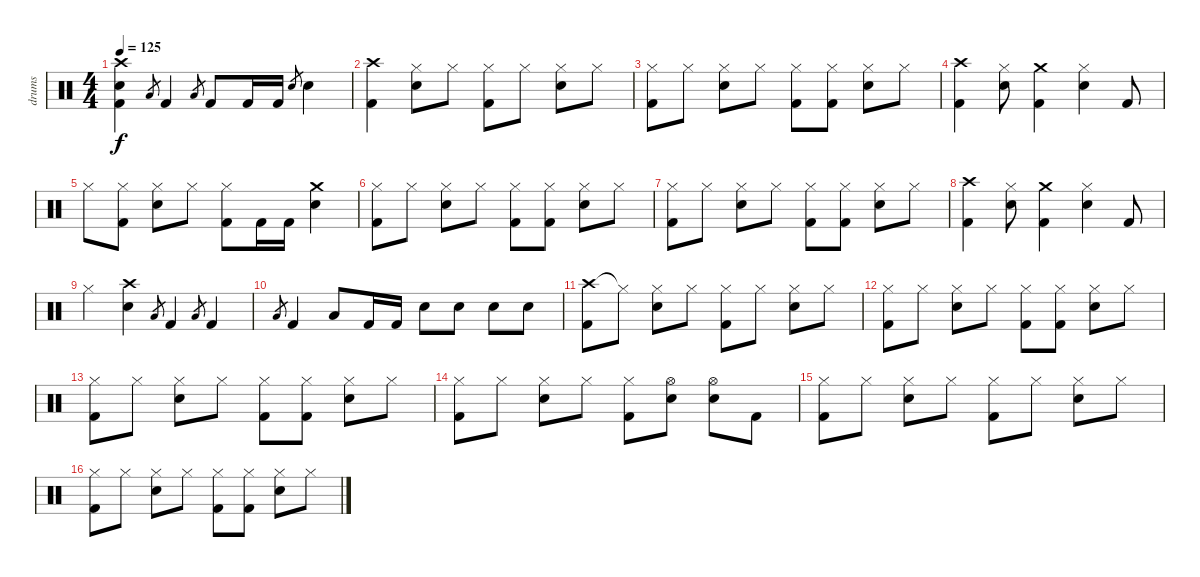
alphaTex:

\track ("drums" "drums") {instrument percussion}
\staff {score}
\articulation defaults
\ts (4 4)
\tempo 125
\clef neutral
\ks c
("Crash high (hit)" "Electric Snare (hit)" "Kick (hit) 2").4{dy f} "Low Floor Tom (hit)".8{gr} "Kick (hit) 2".4 "Low Floor Tom (hit)".8{gr} "Kick (hit) 2".8 "Kick (hit) 2".16 "Kick (hit) 2".16 "Electric Snare (hit)".8{gr} "Electric Snare (hit)".4 |
("Crash high (hit)" "Kick (hit) 2").4 ("Hi-Hat (closed)" "Electric Snare (hit)").8 "Hi-Hat (closed)".8 ("Hi-Hat (closed)" "Kick (hit) 2").8 "Hi-Hat (closed)".8 ("Hi-Hat (closed)" "Electric Snare (hit)").8 "Hi-Hat (closed)".8 |
("Hi-Hat (closed)" "Kick (hit) 2").8 "Hi-Hat (closed)".8 ("Hi-Hat (closed)" "Electric Snare (hit)").8 "Hi-Hat (closed)".8 ("Hi-Hat (closed)" "Kick (hit) 2").8 ("Hi-Hat (closed)" "Kick (hit) 2").8 ("Hi-Hat (closed)" "Electric Snare (hit)").8 "Hi-Hat (closed)".8 |
("Crash high (hit)" "Kick (hit) 2").4 ("Hi-Hat (closed)" "Electric Snare (hit)").8 ("Crash medium (hit)" "Kick (hit) 2").4 ("Hi-Hat (closed)" "Electric Snare (hit)").4 "Kick (hit) 2".8 |
"Hi-Hat (closed)".8 ("Hi-Hat (closed)" "Kick (hit) 2").8 ("Hi-Hat (closed)" "Electric Snare (hit)").8 "Hi-Hat (closed)".8 ("Hi-Hat (closed)" "Kick (hit) 2").8 "Kick (hit) 2".16 "Kick (hit) 2".16 ("Crash medium (hit)" "Electric Snare (hit)").4 |
("Hi-Hat (closed)" "Kick (hit) 2").8 "Hi-Hat (closed)".8 ("Hi-Hat (closed)" "Electric Snare (hit)").8 "Hi-Hat (closed)".8 ("Hi-Hat (closed)" "Kick (hit) 2").8 ("Hi-Hat (closed)" "Kick (hit) 2").8 ("Hi-Hat (closed)" "Electric Snare (hit)").8 "Hi-Hat (closed)".8 |
("Hi-Hat (closed)" "Kick (hit) 2").8 "Hi-Hat (closed)".8 ("Hi-Hat (closed)" "Electric Snare (hit)").8 "Hi-Hat (closed)".8 ("Hi-Hat (closed)" "Kick (hit) 2").8 ("Hi-Hat (closed)" "Kick (hit) 2").8 ("Hi-Hat (closed)" "Electric Snare (hit)").8 "Hi-Hat (closed)".8 |
("Crash high (hit)" "Kick (hit) 2").4 ("Hi-Hat (closed)" "Electric Snare (hit)").8 ("Crash medium (hit)" "Kick (hit) 2").4 ("Hi-Hat (closed)" "Electric Snare (hit)").4 "Kick (hit) 2".8 |
"Hi-Hat (closed)".4 ("Crash high (hit)" "Electric Snare (hit)").4 "Low Floor Tom (hit)".8{gr} "Kick (hit) 2".4 "Low Floor Tom (hit)".8{gr} "Kick (hit) 2".4 |
"Low Floor Tom (hit)".8{gr} "Kick (hit) 2".4 "Low Floor Tom (hit)".8 "Kick (hit) 2".16 "Kick (hit) 2".16 "Electric Snare (hit)".8 "Electric Snare (hit)".8 "Electric Snare (hit)".8 "Electric Snare (hit)".8 |
("Crash high (hit)" "Kick (hit) 2").8 "Hi-Hat (closed)"{t}.8 ("Hi-Hat (closed)" "Electric Snare (hit)").8 "Hi-Hat (closed)".8 ("Hi-Hat (closed)" "Kick (hit) 2").8 "Hi-Hat (closed)".8 ("Hi-Hat (closed)" "Electric Snare (hit)").8 "Hi-Hat (closed)".8 |
("Hi-Hat (closed)" "Kick (hit) 2").8 "Hi-Hat (closed)".8 ("Hi-Hat (closed)" "Electric Snare (hit)").8 "Hi-Hat (closed)".8 ("Hi-Hat (closed)" "Kick (hit) 2").8 ("Hi-Hat (closed)" "Kick (hit) 2").8 ("Hi-Hat (closed)" "Electric Snare (hit)").8 "Hi-Hat (closed)".8 |
("Hi-Hat (closed)" "Kick (hit) 2").8 "Hi-Hat (closed)".8 ("Hi-Hat (closed)" "Electric Snare (hit)").8 "Hi-Hat (closed)".8 ("Hi-Hat (closed)" "Kick (hit) 2").8 ("Hi-Hat (closed)" "Kick (hit) 2").8 ("Hi-Hat (closed)" "Electric Snare (hit)").8 "Hi-Hat (closed)".8 |
("Hi-Hat (closed)" "Kick (hit) 2").8 "Hi-Hat (closed)".8 ("Hi-Hat (closed)" "Electric Snare (hit)").8 "Hi-Hat (closed)".8 ("Hi-Hat (closed)" "Kick (hit) 2").8 ("Hi-Hat (open)" "Electric Snare (hit)").8 ("Hi-Hat (open)" "Electric Snare (hit)").8 "Kick (hit) 2".8 |
("Hi-Hat (closed)" "Kick (hit) 2").8 "Hi-Hat (closed)".8 ("Hi-Hat (closed)" "Electric Snare (hit)").8 "Hi-Hat (closed)".8 ("Hi-Hat (closed)" "Kick (hit) 2").8 "Hi-Hat (closed)".8 ("Hi-Hat (closed)" "Electric Snare (hit)").8 "Hi-Hat (closed)".8 |
("Hi-Hat (closed)" "Kick (hit) 2").8 "Hi-Hat (closed)".8 ("Hi-Hat (closed)" "Electric Snare (hit)").8 "Hi-Hat (closed)".8 ("Hi-Hat (closed)" "Kick (hit) 2").8 ("Hi-Hat (closed)" "Kick (hit) 2").8 ("Hi-Hat (closed)" "Electric Snare (hit)").8 "Hi-Hat (closed)".8
